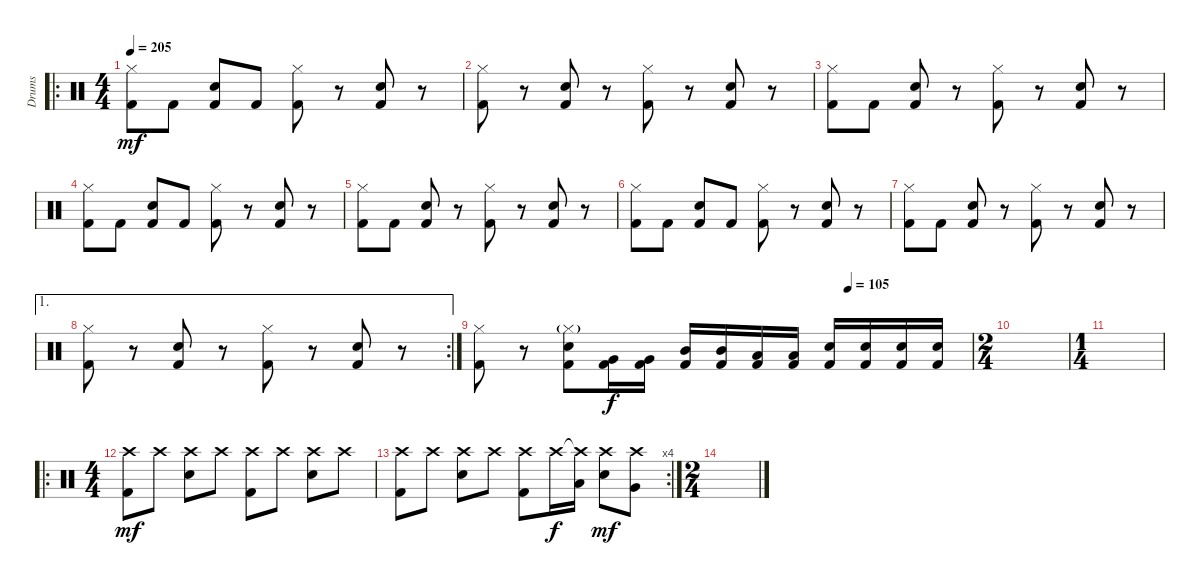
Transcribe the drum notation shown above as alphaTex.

\track ("Drums" "Drums") {instrument percussion}
\staff {score}
\articulation defaults
\ro
\ts (4 4)
\tempo 205
\clef neutral
\ks c
("Hi-Hat (closed)" "Kick (hit) 2").8{dy mf} "Kick (hit) 2".8 ("Electric Snare (hit)" "Kick (hit) 2").8 "Kick (hit) 2".8 ("Hi-Hat (closed)" "Kick (hit) 2").8 r.8 ("Electric Snare (hit)" "Kick (hit) 2").8 r.8 |
("Hi-Hat (closed)" "Kick (hit) 2").8 r.8 ("Electric Snare (hit)" "Kick (hit) 2").8 r.8 ("Hi-Hat (closed)" "Kick (hit) 2").8 r.8 ("Electric Snare (hit)" "Kick (hit) 2").8 r.8 |
("Hi-Hat (closed)" "Kick (hit) 2").8 "Kick (hit) 2".8 ("Electric Snare (hit)" "Kick (hit) 2").8 r.8 ("Hi-Hat (closed)" "Kick (hit) 2").8 r.8 ("Electric Snare (hit)" "Kick (hit) 2").8 r.8 |
("Hi-Hat (closed)" "Kick (hit) 2").8 "Kick (hit) 2".8 ("Electric Snare (hit)" "Kick (hit) 2").8 "Kick (hit) 2".8 ("Hi-Hat (closed)" "Kick (hit) 2").8 r.8 ("Electric Snare (hit)" "Kick (hit) 2").8 r.8 |
("Hi-Hat (closed)" "Kick (hit) 2").8 "Kick (hit) 2".8 ("Electric Snare (hit)" "Kick (hit) 2").8 r.8 ("Hi-Hat (closed)" "Kick (hit) 2").8 r.8 ("Electric Snare (hit)" "Kick (hit) 2").8 r.8 |
("Hi-Hat (closed)" "Kick (hit) 2").8 "Kick (hit) 2".8 ("Electric Snare (hit)" "Kick (hit) 2").8 "Kick (hit) 2".8 ("Hi-Hat (closed)" "Kick (hit) 2").8 r.8 ("Electric Snare (hit)" "Kick (hit) 2").8 r.8 |
("Hi-Hat (closed)" "Kick (hit) 2").8 "Kick (hit) 2".8 ("Electric Snare (hit)" "Kick (hit) 2").8 r.8 ("Hi-Hat (closed)" "Kick (hit) 2").8 r.8 ("Electric Snare (hit)" "Kick (hit) 2").8 r.8 |
\ae 1
\rc 2
("Hi-Hat (closed)" "Kick (hit) 2").8 r.8 ("Electric Snare (hit)" "Kick (hit) 2").8 r.8 ("Hi-Hat (closed)" "Kick (hit) 2").8 r.8 ("Electric Snare (hit)" "Kick (hit) 2").8 r.8 |
\tempo (105 0.75)
("Hi-Hat (closed)" "Kick (hit) 2").8 r.8 ("Hi-Hat (closed)"{g} "Electric Snare (hit)" "Kick (hit) 2").8 ("Very Low Tom (hit)" "Kick (hit) 2").16{dy f} ("Very Low Tom (hit)" "Kick (hit) 2").16 ("Mid Tom (hit)" "Kick (hit) 2").16 ("Mid Tom (hit)" "Kick (hit) 2").16 ("Low Floor Tom (hit)" "Kick (hit) 2").16 ("Low Floor Tom (hit)" "Kick (hit) 2").16 ("Electric Snare (hit)" "Kick (hit) 2").16 ("Electric Snare (hit)" "Kick (hit) 2").16 ("Electric Snare (hit)" "Kick (hit) 2").16 ("Electric Snare (hit)" "Kick (hit) 2").16 |
\ts (2 4)
|
\ts (1 4)
|
\ro
\ts (4 4)
("Crash high (hit)" "Kick (hit) 2").8{dy mf} "Crash high (hit)".8 ("Crash high (hit)" "Electric Snare (hit)").8 "Crash high (hit)".8 ("Crash high (hit)" "Kick (hit) 2").8 "Crash high (hit)".8 ("Crash high (hit)" "Electric Snare (hit)").8 "Crash high (hit)".8 |
\rc 4
("Crash high (hit)" "Kick (hit) 2").8 "Crash high (hit)".8 ("Crash high (hit)" "Electric Snare (hit)").8 "Crash high (hit)".8 ("Crash high (hit)" "Kick (hit) 2").8 "Crash high (hit)".16{dy f} ("Crash high (hit)"{t} "Low Tom (hit)").16 ("Crash high (hit)" "Electric Snare (hit)").8{dy mf} ("Crash high (hit)" "Very Low Tom (hit)").8 |
\ts (2 4)
